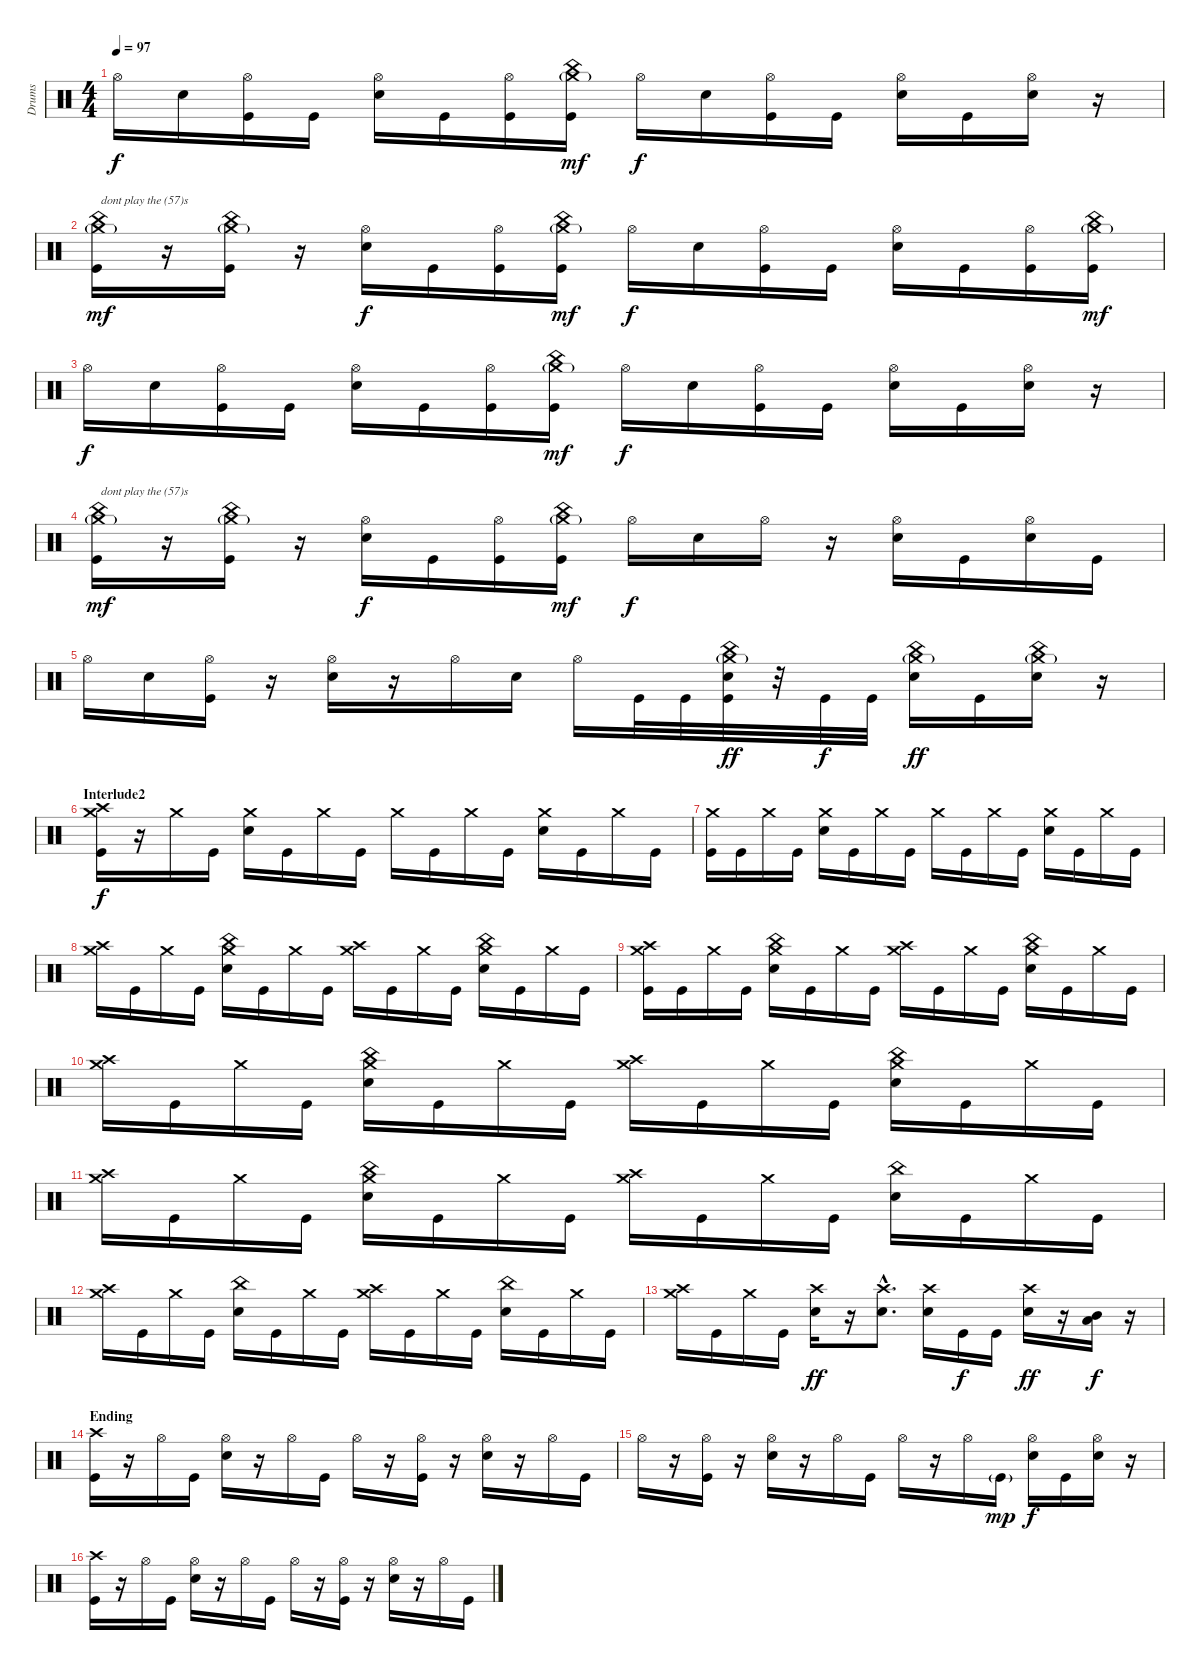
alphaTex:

\track ("Drums" "Drums") {instrument percussion}
\staff {score}
\articulation defaults
\ts (4 4)
\tempo 97
\clef neutral
\ks c "Hi-Hat (open)".16{dy f} "Electric Snare (hit)".16
("Hi-Hat (open)" "Kick (hit)").16 "Kick (hit)".16 ("Hi-Hat (open)" "Electric Snare (hit)").16 "Kick (hit)".16 ("Hi-Hat (open)" "Kick (hit)").16 ("China (hit)" "Crash medium (hit)"{g} "Kick (hit)").16{dy mf} "Hi-Hat (open)".16{dy f} "Electric Snare (hit)".16 ("Hi-Hat (open)" "Kick (hit)").16 "Kick (hit)".16 ("Hi-Hat (open)" "Electric Snare (hit)").16 "Kick (hit)".16 ("Hi-Hat (open)" "Electric Snare (hit)").16 r.16 |
("China (hit)" "Crash medium (hit)"{g} "Kick (hit)").16{txt "dont play the (57)s" dy mf} r.16 ("China (hit)" "Crash medium (hit)"{g} "Kick (hit)").16 r.16 ("Hi-Hat (open)" "Electric Snare (hit)").16{dy f} "Kick (hit)".16 ("Hi-Hat (open)" "Kick (hit)").16 ("China (hit)" "Crash medium (hit)"{g} "Kick (hit)").16{dy mf} "Hi-Hat (open)".16{dy f} "Electric Snare (hit)".16 ("Hi-Hat (open)" "Kick (hit)").16 "Kick (hit)".16 ("Hi-Hat (open)" "Electric Snare (hit)").16 "Kick (hit)".16 ("Hi-Hat (open)" "Kick (hit)").16 ("China (hit)" "Crash medium (hit)"{g} "Kick (hit)").16{dy mf} |
"Hi-Hat (open)".16{dy f} "Electric Snare (hit)".16 ("Hi-Hat (open)" "Kick (hit)").16 "Kick (hit)".16 ("Hi-Hat (open)" "Electric Snare (hit)").16 "Kick (hit)".16 ("Hi-Hat (open)" "Kick (hit)").16 ("China (hit)" "Crash medium (hit)"{g} "Kick (hit)").16{dy mf} "Hi-Hat (open)".16{dy f} "Electric Snare (hit)".16 ("Hi-Hat (open)" "Kick (hit)").16 "Kick (hit)".16 ("Hi-Hat (open)" "Electric Snare (hit)").16 "Kick (hit)".16 ("Hi-Hat (open)" "Electric Snare (hit)").16 r.16 |
("China (hit)" "Crash medium (hit)"{g} "Kick (hit)").16{txt "dont play the (57)s" dy mf} r.16 ("China (hit)" "Crash medium (hit)"{g} "Kick (hit)").16 r.16 ("Hi-Hat (open)" "Electric Snare (hit)").16{dy f} "Kick (hit)".16 ("Hi-Hat (open)" "Kick (hit)").16 ("China (hit)" "Crash medium (hit)"{g} "Kick (hit)").16{dy mf} "Hi-Hat (open)".16{dy f} "Electric Snare (hit)".16 "Hi-Hat (open)".16 r.16 ("Hi-Hat (open)" "Electric Snare (hit)").16 "Kick (hit)".16 ("Hi-Hat (open)" "Electric Snare (hit)").16 "Kick (hit)".16 |
"Hi-Hat (open)".16 "Electric Snare (hit)".16 ("Hi-Hat (open)" "Kick (hit)").16 r.16 ("Hi-Hat (open)" "Electric Snare (hit)").16 r.16 "Hi-Hat (open)".16 "Electric Snare (hit)".16 "Hi-Hat (open)".16 "Kick (hit)".32 "Kick (hit)".32 ("China (hit)" "Crash medium (hit)"{g} "Electric Snare (hit)" "Kick (hit)").32{dy ff} r.32 "Kick (hit)".32{dy f} "Kick (hit)".32 ("China (hit)" "Crash medium (hit)"{g} "Electric Snare (hit)").16{dy ff} "Kick (hit)".16 ("China (hit)" "Crash medium (hit)"{g} "Electric Snare (hit)").16 r.16 |
\section ("" "Interlude2")
("Crash high (hit)" "Crash medium (hit)" "Kick (hit)").16{dy f} r.16 "Crash medium (hit)".16 "Kick (hit)".16 ("Crash medium (hit)" "Electric Snare (hit)").16 "Kick (hit)".16 "Crash medium (hit)".16 "Kick (hit)".16 "Crash medium (hit)".16 "Kick (hit)".16 "Crash medium (hit)".16 "Kick (hit)".16 ("Crash medium (hit)" "Electric Snare (hit)").16 "Kick (hit)".16 "Crash medium (hit)".16 "Kick (hit)".16 |
("Crash medium (hit)" "Kick (hit)").16 "Kick (hit)".16 "Crash medium (hit)".16 "Kick (hit)".16 ("Crash medium (hit)" "Electric Snare (hit)").16 "Kick (hit)".16 "Crash medium (hit)".16 "Kick (hit)".16 "Crash medium (hit)".16 "Kick (hit)".16 "Crash medium (hit)".16 "Kick (hit)".16 ("Crash medium (hit)" "Electric Snare (hit)").16 "Kick (hit)".16 "Crash medium (hit)".16 "Kick (hit)".16 |
("Crash high (hit)" "Crash medium (hit)").16 "Kick (hit)".16 "Crash medium (hit)".16 "Kick (hit)".16 ("China (hit)" "Crash medium (hit)" "Electric Snare (hit)").16 "Kick (hit)".16 "Crash medium (hit)".16 "Kick (hit)".16 ("Crash high (hit)" "Crash medium (hit)").16 "Kick (hit)".16 "Crash medium (hit)".16 "Kick (hit)".16 ("China (hit)" "Crash medium (hit)" "Electric Snare (hit)").16 "Kick (hit)".16 "Crash medium (hit)".16 "Kick (hit)".16 |
("Crash high (hit)" "Crash medium (hit)" "Kick (hit)").16 "Kick (hit)".16 "Crash medium (hit)".16 "Kick (hit)".16 ("China (hit)" "Crash medium (hit)" "Electric Snare (hit)").16 "Kick (hit)".16 "Crash medium (hit)".16 "Kick (hit)".16 ("Crash high (hit)" "Crash medium (hit)").16 "Kick (hit)".16 "Crash medium (hit)".16 "Kick (hit)".16 ("China (hit)" "Crash medium (hit)" "Electric Snare (hit)").16 "Kick (hit)".16 "Crash medium (hit)".16 "Kick (hit)".16 |
("Crash high (hit)" "Crash medium (hit)").16 "Kick (hit)".16 "Crash medium (hit)".16 "Kick (hit)".16 ("China (hit)" "Crash medium (hit)" "Electric Snare (hit)").16 "Kick (hit)".16 "Crash medium (hit)".16 "Kick (hit)".16 ("Crash high (hit)" "Crash medium (hit)").16 "Kick (hit)".16 "Crash medium (hit)".16 "Kick (hit)".16 ("China (hit)" "Crash medium (hit)" "Electric Snare (hit)").16 "Kick (hit)".16 "Crash medium (hit)".16 "Kick (hit)".16 |
("Crash high (hit)" "Crash medium (hit)").16 "Kick (hit)".16 "Crash medium (hit)".16 "Kick (hit)".16 ("China (hit)" "Crash medium (hit)" "Electric Snare (hit)").16 "Kick (hit)".16 "Crash medium (hit)".16 "Kick (hit)".16 ("Crash high (hit)" "Crash medium (hit)").16 "Kick (hit)".16 "Crash medium (hit)".16 "Kick (hit)".16 ("China (hit)" "Electric Snare (hit)").16 "Kick (hit)".16 "Crash medium (hit)".16 "Kick (hit)".16 |
("Crash high (hit)" "Crash medium (hit)").16 "Kick (hit)".16 "Crash medium (hit)".16 "Kick (hit)".16 ("China (hit)" "Electric Snare (hit)").16 "Kick (hit)".16 "Crash medium (hit)".16 "Kick (hit)".16 ("Crash high (hit)" "Crash medium (hit)").16 "Kick (hit)".16 "Crash medium (hit)".16 "Kick (hit)".16 ("China (hit)" "Electric Snare (hit)").16 "Kick (hit)".16 "Crash medium (hit)".16 "Kick (hit)".16 |
("Crash high (hit)" "Crash medium (hit)").16 "Kick (hit)".16 "Crash medium (hit)".16 "Kick (hit)".16 ("Crash high (hit)" "Electric Snare (hit)").16{dy ff} r.16 ("Crash high (hit)"{hac} "Electric Snare (hit)"{hac}).8{d} ("Crash high (hit)" "Electric Snare (hit)").16 "Kick (hit)".16{dy f} "Kick (hit)".16 ("Crash high (hit)" "Electric Snare (hit)").16{dy ff} r.16 ("Mid Tom (hit)" "Low Tom (hit)").16{dy f} r.16 |
\section ("" "Ending")
("Crash high (hit)" "Kick (hit)").16 r.16 "Hi-Hat (open)".16 "Kick (hit)".16 ("Hi-Hat (open)" "Electric Snare (hit)").16 r.16 "Hi-Hat (open)".16 "Kick (hit)".16 "Hi-Hat (open)".16 r.16 ("Hi-Hat (open)" "Kick (hit)").16 r.16 ("Hi-Hat (open)" "Electric Snare (hit)").16 r.16 "Hi-Hat (open)".16 "Kick (hit)".16 |
"Hi-Hat (open)".16 r.16 ("Hi-Hat (open)" "Kick (hit)").16 r.16 ("Hi-Hat (open)" "Electric Snare (hit)").16 r.16 "Hi-Hat (open)".16 "Kick (hit)".16 "Hi-Hat (open)".16 r.16 "Hi-Hat (open)".16 "Kick (hit)"{g}.16{dy mp} ("Hi-Hat (open)" "Electric Snare (hit)").16{dy f} "Kick (hit)".16 ("Hi-Hat (open)" "Electric Snare (hit)").16 r.16 |
("Crash high (hit)" "Kick (hit)").16 r.16 "Hi-Hat (open)".16 "Kick (hit)".16 ("Hi-Hat (open)" "Electric Snare (hit)").16 r.16 "Hi-Hat (open)".16 "Kick (hit)".16 "Hi-Hat (open)".16 r.16 ("Hi-Hat (open)" "Kick (hit)").16 r.16 ("Hi-Hat (open)" "Electric Snare (hit)").16 r.16 "Hi-Hat (open)".16 "Kick (hit)".16
